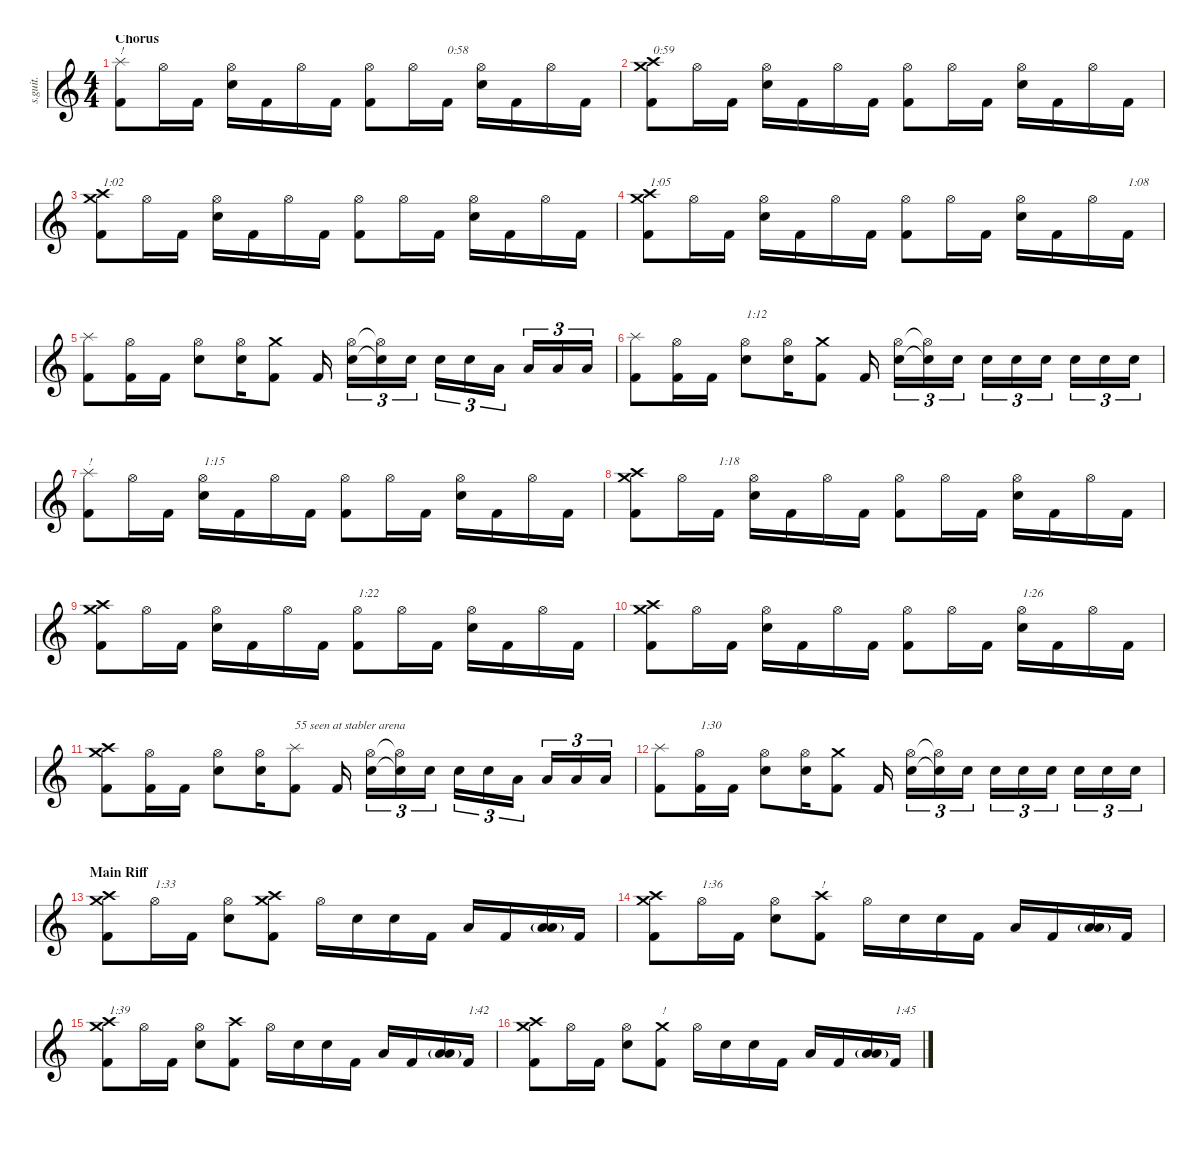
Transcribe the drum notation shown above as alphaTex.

\defaultSystemsLayout 4
\hideDynamics
\bracketExtendMode nobrackets
\track ("Dave Grohl | Drums" "s.guit.") {instrument percussion}
\staff {score}
\articulation defaults
\ts (4 4)
\section ("" "Chorus")
\tempo (79 hide)
\clef g2
\ks c
("Splash (hit)" "Kick (hit) 2").8{txt "!" lyrics (0 "") lyrics (1 "") lyrics (2 "") lyrics (3 "") lyrics (4 "") dy f} "Hi-Hat (open)".16{lyrics (0 "") lyrics (1 "") lyrics (2 "") lyrics (3 "") lyrics (4 "")} "Kick (hit) 2".16{lyrics (0 "") lyrics (1 "") lyrics (2 "") lyrics (3 "") lyrics (4 "") dy fff} ("Hi-Hat (open)" "Snare (hit) 2").16{lyrics (0 "") lyrics (1 "") lyrics (2 "") lyrics (3 "") lyrics (4 "") dy f} "Kick (hit) 2".16{lyrics (0 "") lyrics (1 "") lyrics (2 "") lyrics (3 "") lyrics (4 "") dy fff} "Hi-Hat (open)".16{lyrics (0 "") lyrics (1 "") lyrics (2 "") lyrics (3 "") lyrics (4 "") dy f} "Kick (hit) 2".16{lyrics (0 "") lyrics (1 "") lyrics (2 "") lyrics (3 "") lyrics (4 "") dy fff} ("Hi-Hat (open)" "Kick (hit) 2").8{lyrics (0 "") lyrics (1 "") lyrics (2 "") lyrics (3 "") lyrics (4 "") dy f} "Hi-Hat (open)".16{lyrics (0 "") lyrics (1 "") lyrics (2 "") lyrics (3 "") lyrics (4 "")} "Kick (hit) 2".16{txt "0:58" lyrics (0 "") lyrics (1 "") lyrics (2 "") lyrics (3 "") lyrics (4 "") dy fff} ("Hi-Hat (open)" "Snare (hit) 2").16{lyrics (0 "") lyrics (1 "") lyrics (2 "") lyrics (3 "") lyrics (4 "") dy f} "Kick (hit) 2".16{lyrics (0 "") lyrics (1 "") lyrics (2 "") lyrics (3 "") lyrics (4 "") dy fff} "Hi-Hat (open)".16{lyrics (0 "") lyrics (1 "") lyrics (2 "") lyrics (3 "") lyrics (4 "") dy f} "Kick (hit) 2".16{lyrics (0 "") lyrics (1 "") lyrics (2 "") lyrics (3 "") lyrics (4 "") dy fff} |
("Crash medium (hit)" "Crash high (hit)" "Kick (hit) 2").8{txt "0:59" lyrics (0 "") lyrics (1 "") lyrics (2 "") lyrics (3 "") lyrics (4 "") dy f} "Hi-Hat (open)".16{lyrics (0 "") lyrics (1 "") lyrics (2 "") lyrics (3 "") lyrics (4 "")} "Kick (hit) 2".16{lyrics (0 "") lyrics (1 "") lyrics (2 "") lyrics (3 "") lyrics (4 "") dy fff} ("Hi-Hat (open)" "Snare (hit) 2").16{lyrics (0 "") lyrics (1 "") lyrics (2 "") lyrics (3 "") lyrics (4 "") dy f} "Kick (hit) 2".16{lyrics (0 "") lyrics (1 "") lyrics (2 "") lyrics (3 "") lyrics (4 "") dy fff} "Hi-Hat (open)".16{lyrics (0 "") lyrics (1 "") lyrics (2 "") lyrics (3 "") lyrics (4 "") dy f} "Kick (hit) 2".16{lyrics (0 "") lyrics (1 "") lyrics (2 "") lyrics (3 "") lyrics (4 "") dy fff} ("Hi-Hat (open)" "Kick (hit) 2").8{lyrics (0 "") lyrics (1 "") lyrics (2 "") lyrics (3 "") lyrics (4 "") dy f} "Hi-Hat (open)".16{lyrics (0 "") lyrics (1 "") lyrics (2 "") lyrics (3 "") lyrics (4 "")} "Kick (hit) 2".16{lyrics (0 "") lyrics (1 "") lyrics (2 "") lyrics (3 "") lyrics (4 "") dy fff} ("Hi-Hat (open)" "Snare (hit) 2").16{lyrics (0 "") lyrics (1 "") lyrics (2 "") lyrics (3 "") lyrics (4 "") dy f} "Kick (hit) 2".16{lyrics (0 "") lyrics (1 "") lyrics (2 "") lyrics (3 "") lyrics (4 "") dy fff} "Hi-Hat (open)".16{lyrics (0 "") lyrics (1 "") lyrics (2 "") lyrics (3 "") lyrics (4 "") dy f} "Kick (hit) 2".16{lyrics (0 "") lyrics (1 "") lyrics (2 "") lyrics (3 "") lyrics (4 "") dy fff} |
("Crash medium (hit)" "Crash high (hit)" "Kick (hit) 2").8{txt "1:02" lyrics (0 "") lyrics (1 "") lyrics (2 "") lyrics (3 "") lyrics (4 "") dy f} "Hi-Hat (open)".16{lyrics (0 "") lyrics (1 "") lyrics (2 "") lyrics (3 "") lyrics (4 "")} "Kick (hit) 2".16{lyrics (0 "") lyrics (1 "") lyrics (2 "") lyrics (3 "") lyrics (4 "")} ("Hi-Hat (open)" "Snare (hit) 2").16{lyrics (0 "") lyrics (1 "") lyrics (2 "") lyrics (3 "") lyrics (4 "")} "Kick (hit) 2".16{lyrics (0 "") lyrics (1 "") lyrics (2 "") lyrics (3 "") lyrics (4 "")} "Hi-Hat (open)".16{lyrics (0 "") lyrics (1 "") lyrics (2 "") lyrics (3 "") lyrics (4 "")} "Kick (hit) 2".16{lyrics (0 "") lyrics (1 "") lyrics (2 "") lyrics (3 "") lyrics (4 "")} ("Hi-Hat (open)" "Kick (hit) 2").8{lyrics (0 "") lyrics (1 "") lyrics (2 "") lyrics (3 "") lyrics (4 "")} "Hi-Hat (open)".16{lyrics (0 "") lyrics (1 "") lyrics (2 "") lyrics (3 "") lyrics (4 "")} "Kick (hit) 2".16{lyrics (0 "") lyrics (1 "") lyrics (2 "") lyrics (3 "") lyrics (4 "")} ("Hi-Hat (open)" "Snare (hit) 2").16{lyrics (0 "") lyrics (1 "") lyrics (2 "") lyrics (3 "") lyrics (4 "")} "Kick (hit) 2".16{lyrics (0 "") lyrics (1 "") lyrics (2 "") lyrics (3 "") lyrics (4 "")} "Hi-Hat (open)".16{lyrics (0 "") lyrics (1 "") lyrics (2 "") lyrics (3 "") lyrics (4 "")} "Kick (hit) 2".16{lyrics (0 "") lyrics (1 "") lyrics (2 "") lyrics (3 "") lyrics (4 "")} |
("Crash medium (hit)" "Crash high (hit)" "Kick (hit) 2").8{txt "1:05" lyrics (0 "") lyrics (1 "") lyrics (2 "") lyrics (3 "") lyrics (4 "")} "Hi-Hat (open)".16{lyrics (0 "") lyrics (1 "") lyrics (2 "") lyrics (3 "") lyrics (4 "")} "Kick (hit) 2".16{lyrics (0 "") lyrics (1 "") lyrics (2 "") lyrics (3 "") lyrics (4 "")} ("Hi-Hat (open)" "Snare (hit) 2").16{lyrics (0 "") lyrics (1 "") lyrics (2 "") lyrics (3 "") lyrics (4 "")} "Kick (hit) 2".16{lyrics (0 "") lyrics (1 "") lyrics (2 "") lyrics (3 "") lyrics (4 "")} "Hi-Hat (open)".16{lyrics (0 "") lyrics (1 "") lyrics (2 "") lyrics (3 "") lyrics (4 "")} "Kick (hit) 2".16{lyrics (0 "") lyrics (1 "") lyrics (2 "") lyrics (3 "") lyrics (4 "")} ("Hi-Hat (open)" "Kick (hit) 2").8{lyrics (0 "") lyrics (1 "") lyrics (2 "") lyrics (3 "") lyrics (4 "")} "Hi-Hat (open)".16{lyrics (0 "") lyrics (1 "") lyrics (2 "") lyrics (3 "") lyrics (4 "")} "Kick (hit) 2".16{lyrics (0 "") lyrics (1 "") lyrics (2 "") lyrics (3 "") lyrics (4 "")} ("Hi-Hat (open)" "Snare (hit) 2").16{lyrics (0 "") lyrics (1 "") lyrics (2 "") lyrics (3 "") lyrics (4 "")} "Kick (hit) 2".16{lyrics (0 "") lyrics (1 "") lyrics (2 "") lyrics (3 "") lyrics (4 "")} "Hi-Hat (open)".16{lyrics (0 "") lyrics (1 "") lyrics (2 "") lyrics (3 "") lyrics (4 "")} "Kick (hit) 2".16{txt "1:08" lyrics (0 "") lyrics (1 "") lyrics (2 "") lyrics (3 "") lyrics (4 "")} |
("Splash (hit)" "Kick (hit) 2").8{lyrics (0 "") lyrics (1 "") lyrics (2 "") lyrics (3 "") lyrics (4 "")} ("Hi-Hat (open)" "Kick (hit) 2").16{lyrics (0 "") lyrics (1 "") lyrics (2 "") lyrics (3 "") lyrics (4 "")} "Kick (hit) 2".16{lyrics (0 "") lyrics (1 "") lyrics (2 "") lyrics (3 "") lyrics (4 "") dy fff} ("Hi-Hat (open)" "Snare (hit) 2").8{lyrics (0 "") lyrics (1 "") lyrics (2 "") lyrics (3 "") lyrics (4 "") dy f} ("Hi-Hat (open)" "Snare (hit) 2").16{lyrics (0 "") lyrics (1 "") lyrics (2 "") lyrics (3 "") lyrics (4 "")} ("Crash medium (hit)" "Kick (hit) 2").8{lyrics (0 "") lyrics (1 "") lyrics (2 "") lyrics (3 "") lyrics (4 "")} "Kick (hit) 2".16{lyrics (0 "") lyrics (1 "") lyrics (2 "") lyrics (3 "") lyrics (4 "") dy fff} ("Hi-Hat (open)" "Snare (hit) 2").16{tu (3 2) lyrics (0 "") lyrics (1 "") lyrics (2 "") lyrics (3 "") lyrics (4 "") dy f} ("Hi-Hat (open)"{t} "Snare (hit) 2"{t}).16{tu (3 2) lyrics (0 "") lyrics (1 "") lyrics (2 "") lyrics (3 "") lyrics (4 "")} "Snare (hit) 2".16{tu (3 2) lyrics (0 "") lyrics (1 "") lyrics (2 "") lyrics (3 "") lyrics (4 "")} "Snare (hit) 2".16{tu (3 2) lyrics (0 "") lyrics (1 "") lyrics (2 "") lyrics (3 "") lyrics (4 "")} "Snare (hit) 2".16{tu (3 2) lyrics (0 "") lyrics (1 "") lyrics (2 "") lyrics (3 "") lyrics (4 "")} "Low Tom (hit)".16{tu (3 2) lyrics (0 "") lyrics (1 "") lyrics (2 "") lyrics (3 "") lyrics (4 "")} "Low Tom (hit)".16{tu (3 2) lyrics (0 "") lyrics (1 "") lyrics (2 "") lyrics (3 "") lyrics (4 "")} "Low Floor Tom (hit)".16{tu (3 2) lyrics (0 "") lyrics (1 "") lyrics (2 "") lyrics (3 "") lyrics (4 "")} "Low Floor Tom (hit)".16{tu (3 2) lyrics (0 "") lyrics (1 "") lyrics (2 "") lyrics (3 "") lyrics (4 "")} |
("Splash (hit)" "Kick (hit) 2").8{lyrics (0 "") lyrics (1 "") lyrics (2 "") lyrics (3 "") lyrics (4 "")} ("Hi-Hat (open)" "Kick (hit) 2").16{lyrics (0 "") lyrics (1 "") lyrics (2 "") lyrics (3 "") lyrics (4 "")} "Kick (hit) 2".16{lyrics (0 "") lyrics (1 "") lyrics (2 "") lyrics (3 "") lyrics (4 "")} ("Hi-Hat (open)" "Snare (hit) 2").8{txt "1:12" lyrics (0 "") lyrics (1 "") lyrics (2 "") lyrics (3 "") lyrics (4 "")} ("Hi-Hat (open)" "Snare (hit) 2").16{lyrics (0 "") lyrics (1 "") lyrics (2 "") lyrics (3 "") lyrics (4 "")} ("Crash medium (hit)" "Kick (hit) 2").8{lyrics (0 "") lyrics (1 "") lyrics (2 "") lyrics (3 "") lyrics (4 "")} "Kick (hit) 2".16{lyrics (0 "") lyrics (1 "") lyrics (2 "") lyrics (3 "") lyrics (4 "")} ("Hi-Hat (open)" "Snare (hit) 2").16{tu (3 2) lyrics (0 "") lyrics (1 "") lyrics (2 "") lyrics (3 "") lyrics (4 "")} ("Hi-Hat (open)"{t} "Snare (hit) 2"{t}).16{tu (3 2) lyrics (0 "") lyrics (1 "") lyrics (2 "") lyrics (3 "") lyrics (4 "")} "Snare (hit) 2".16{tu (3 2) lyrics (0 "") lyrics (1 "") lyrics (2 "") lyrics (3 "") lyrics (4 "")} "Snare (hit) 2".16{tu (3 2) lyrics (0 "") lyrics (1 "") lyrics (2 "") lyrics (3 "") lyrics (4 "")} "Snare (hit) 2".16{tu (3 2) lyrics (0 "") lyrics (1 "") lyrics (2 "") lyrics (3 "") lyrics (4 "")} "Snare (hit) 2".16{tu (3 2) lyrics (0 "") lyrics (1 "") lyrics (2 "") lyrics (3 "") lyrics (4 "")} "Snare (hit) 2".16{tu (3 2) lyrics (0 "") lyrics (1 "") lyrics (2 "") lyrics (3 "") lyrics (4 "")} "Snare (hit) 2".16{tu (3 2) lyrics (0 "") lyrics (1 "") lyrics (2 "") lyrics (3 "") lyrics (4 "")} "Snare (hit) 2".16{tu (3 2) lyrics (0 "") lyrics (1 "") lyrics (2 "") lyrics (3 "") lyrics (4 "")} |
("Splash (hit)" "Kick (hit) 2").8{txt "!" lyrics (0 "") lyrics (1 "") lyrics (2 "") lyrics (3 "") lyrics (4 "")} "Hi-Hat (open)".16{lyrics (0 "") lyrics (1 "") lyrics (2 "") lyrics (3 "") lyrics (4 "")} "Kick (hit) 2".16{lyrics (0 "") lyrics (1 "") lyrics (2 "") lyrics (3 "") lyrics (4 "") dy fff} ("Hi-Hat (open)" "Snare (hit) 2").16{txt "1:15" lyrics (0 "") lyrics (1 "") lyrics (2 "") lyrics (3 "") lyrics (4 "") dy f} "Kick (hit) 2".16{lyrics (0 "") lyrics (1 "") lyrics (2 "") lyrics (3 "") lyrics (4 "") dy fff} "Hi-Hat (open)".16{lyrics (0 "") lyrics (1 "") lyrics (2 "") lyrics (3 "") lyrics (4 "") dy f} "Kick (hit) 2".16{lyrics (0 "") lyrics (1 "") lyrics (2 "") lyrics (3 "") lyrics (4 "") dy fff} ("Hi-Hat (open)" "Kick (hit) 2").8{lyrics (0 "") lyrics (1 "") lyrics (2 "") lyrics (3 "") lyrics (4 "") dy f} "Hi-Hat (open)".16{lyrics (0 "") lyrics (1 "") lyrics (2 "") lyrics (3 "") lyrics (4 "")} "Kick (hit) 2".16{lyrics (0 "") lyrics (1 "") lyrics (2 "") lyrics (3 "") lyrics (4 "") dy fff} ("Hi-Hat (open)" "Snare (hit) 2").16{lyrics (0 "") lyrics (1 "") lyrics (2 "") lyrics (3 "") lyrics (4 "") dy f} "Kick (hit) 2".16{lyrics (0 "") lyrics (1 "") lyrics (2 "") lyrics (3 "") lyrics (4 "") dy fff} "Hi-Hat (open)".16{lyrics (0 "") lyrics (1 "") lyrics (2 "") lyrics (3 "") lyrics (4 "") dy f} "Kick (hit) 2".16{lyrics (0 "") lyrics (1 "") lyrics (2 "") lyrics (3 "") lyrics (4 "") dy fff} |
("Crash medium (hit)" "Crash high (hit)" "Kick (hit) 2").8{lyrics (0 "") lyrics (1 "") lyrics (2 "") lyrics (3 "") lyrics (4 "") dy f} "Hi-Hat (open)".16{lyrics (0 "") lyrics (1 "") lyrics (2 "") lyrics (3 "") lyrics (4 "")} "Kick (hit) 2".16{txt "1:18" lyrics (0 "") lyrics (1 "") lyrics (2 "") lyrics (3 "") lyrics (4 "") dy fff} ("Hi-Hat (open)" "Snare (hit) 2").16{lyrics (0 "") lyrics (1 "") lyrics (2 "") lyrics (3 "") lyrics (4 "") dy f} "Kick (hit) 2".16{lyrics (0 "") lyrics (1 "") lyrics (2 "") lyrics (3 "") lyrics (4 "") dy fff} "Hi-Hat (open)".16{lyrics (0 "") lyrics (1 "") lyrics (2 "") lyrics (3 "") lyrics (4 "") dy f} "Kick (hit) 2".16{lyrics (0 "") lyrics (1 "") lyrics (2 "") lyrics (3 "") lyrics (4 "") dy fff} ("Hi-Hat (open)" "Kick (hit) 2").8{lyrics (0 "") lyrics (1 "") lyrics (2 "") lyrics (3 "") lyrics (4 "") dy f} "Hi-Hat (open)".16{lyrics (0 "") lyrics (1 "") lyrics (2 "") lyrics (3 "") lyrics (4 "")} "Kick (hit) 2".16{lyrics (0 "") lyrics (1 "") lyrics (2 "") lyrics (3 "") lyrics (4 "") dy fff} ("Hi-Hat (open)" "Snare (hit) 2").16{lyrics (0 "") lyrics (1 "") lyrics (2 "") lyrics (3 "") lyrics (4 "") dy f} "Kick (hit) 2".16{lyrics (0 "") lyrics (1 "") lyrics (2 "") lyrics (3 "") lyrics (4 "") dy fff} "Hi-Hat (open)".16{lyrics (0 "") lyrics (1 "") lyrics (2 "") lyrics (3 "") lyrics (4 "") dy f} "Kick (hit) 2".16{lyrics (0 "") lyrics (1 "") lyrics (2 "") lyrics (3 "") lyrics (4 "") dy fff} |
("Crash medium (hit)" "Crash high (hit)" "Kick (hit) 2").8{lyrics (0 "") lyrics (1 "") lyrics (2 "") lyrics (3 "") lyrics (4 "") dy f} "Hi-Hat (open)".16{lyrics (0 "") lyrics (1 "") lyrics (2 "") lyrics (3 "") lyrics (4 "")} "Kick (hit) 2".16{lyrics (0 "") lyrics (1 "") lyrics (2 "") lyrics (3 "") lyrics (4 "")} ("Hi-Hat (open)" "Snare (hit) 2").16{lyrics (0 "") lyrics (1 "") lyrics (2 "") lyrics (3 "") lyrics (4 "")} "Kick (hit) 2".16{lyrics (0 "") lyrics (1 "") lyrics (2 "") lyrics (3 "") lyrics (4 "")} "Hi-Hat (open)".16{lyrics (0 "") lyrics (1 "") lyrics (2 "") lyrics (3 "") lyrics (4 "")} "Kick (hit) 2".16{lyrics (0 "") lyrics (1 "") lyrics (2 "") lyrics (3 "") lyrics (4 "")} ("Hi-Hat (open)" "Kick (hit) 2").8{txt "1:22" lyrics (0 "") lyrics (1 "") lyrics (2 "") lyrics (3 "") lyrics (4 "")} "Hi-Hat (open)".16{lyrics (0 "") lyrics (1 "") lyrics (2 "") lyrics (3 "") lyrics (4 "")} "Kick (hit) 2".16{lyrics (0 "") lyrics (1 "") lyrics (2 "") lyrics (3 "") lyrics (4 "")} ("Hi-Hat (open)" "Snare (hit) 2").16{lyrics (0 "") lyrics (1 "") lyrics (2 "") lyrics (3 "") lyrics (4 "")} "Kick (hit) 2".16{lyrics (0 "") lyrics (1 "") lyrics (2 "") lyrics (3 "") lyrics (4 "")} "Hi-Hat (open)".16{lyrics (0 "") lyrics (1 "") lyrics (2 "") lyrics (3 "") lyrics (4 "")} "Kick (hit) 2".16{lyrics (0 "") lyrics (1 "") lyrics (2 "") lyrics (3 "") lyrics (4 "")} |
("Crash medium (hit)" "Crash high (hit)" "Kick (hit) 2").8{lyrics (0 "") lyrics (1 "") lyrics (2 "") lyrics (3 "") lyrics (4 "")} "Hi-Hat (open)".16{lyrics (0 "") lyrics (1 "") lyrics (2 "") lyrics (3 "") lyrics (4 "")} "Kick (hit) 2".16{lyrics (0 "") lyrics (1 "") lyrics (2 "") lyrics (3 "") lyrics (4 "")} ("Hi-Hat (open)" "Snare (hit) 2").16{lyrics (0 "") lyrics (1 "") lyrics (2 "") lyrics (3 "") lyrics (4 "")} "Kick (hit) 2".16{lyrics (0 "") lyrics (1 "") lyrics (2 "") lyrics (3 "") lyrics (4 "")} "Hi-Hat (open)".16{lyrics (0 "") lyrics (1 "") lyrics (2 "") lyrics (3 "") lyrics (4 "")} "Kick (hit) 2".16{lyrics (0 "") lyrics (1 "") lyrics (2 "") lyrics (3 "") lyrics (4 "")} ("Hi-Hat (open)" "Kick (hit) 2").8{lyrics (0 "") lyrics (1 "") lyrics (2 "") lyrics (3 "") lyrics (4 "")} "Hi-Hat (open)".16{lyrics (0 "") lyrics (1 "") lyrics (2 "") lyrics (3 "") lyrics (4 "")} "Kick (hit) 2".16{lyrics (0 "") lyrics (1 "") lyrics (2 "") lyrics (3 "") lyrics (4 "")} ("Hi-Hat (open)" "Snare (hit) 2").16{txt "1:26" lyrics (0 "") lyrics (1 "") lyrics (2 "") lyrics (3 "") lyrics (4 "")} "Kick (hit) 2".16{lyrics (0 "") lyrics (1 "") lyrics (2 "") lyrics (3 "") lyrics (4 "")} "Hi-Hat (open)".16{lyrics (0 "") lyrics (1 "") lyrics (2 "") lyrics (3 "") lyrics (4 "")} "Kick (hit) 2".16{lyrics (0 "") lyrics (1 "") lyrics (2 "") lyrics (3 "") lyrics (4 "")} |
("Crash medium (hit)" "Crash high (hit)" "Kick (hit) 2").8{lyrics (0 "") lyrics (1 "") lyrics (2 "") lyrics (3 "") lyrics (4 "")} ("Hi-Hat (open)" "Kick (hit) 2").16{lyrics (0 "") lyrics (1 "") lyrics (2 "") lyrics (3 "") lyrics (4 "")} "Kick (hit) 2".16{lyrics (0 "") lyrics (1 "") lyrics (2 "") lyrics (3 "") lyrics (4 "") dy fff} ("Hi-Hat (open)" "Snare (hit) 2").8{lyrics (0 "") lyrics (1 "") lyrics (2 "") lyrics (3 "") lyrics (4 "") dy f} ("Hi-Hat (open)" "Snare (hit) 2").16{lyrics (0 "") lyrics (1 "") lyrics (2 "") lyrics (3 "") lyrics (4 "")} ("Splash (hit)" "Kick (hit) 2").8{txt "55 seen at stabler arena" lyrics (0 "") lyrics (1 "") lyrics (2 "") lyrics (3 "") lyrics (4 "")} "Kick (hit) 2".16{lyrics (0 "") lyrics (1 "") lyrics (2 "") lyrics (3 "") lyrics (4 "") dy fff} ("Hi-Hat (open)" "Snare (hit) 2").16{tu (3 2) lyrics (0 "") lyrics (1 "") lyrics (2 "") lyrics (3 "") lyrics (4 "") dy f} ("Hi-Hat (open)"{t} "Snare (hit) 2"{t}).16{tu (3 2) lyrics (0 "") lyrics (1 "") lyrics (2 "") lyrics (3 "") lyrics (4 "")} "Snare (hit) 2".16{tu (3 2) lyrics (0 "") lyrics (1 "") lyrics (2 "") lyrics (3 "") lyrics (4 "")} "Snare (hit) 2".16{tu (3 2) lyrics (0 "") lyrics (1 "") lyrics (2 "") lyrics (3 "") lyrics (4 "")} "Snare (hit) 2".16{tu (3 2) lyrics (0 "") lyrics (1 "") lyrics (2 "") lyrics (3 "") lyrics (4 "")} "Low Tom (hit)".16{tu (3 2) lyrics (0 "") lyrics (1 "") lyrics (2 "") lyrics (3 "") lyrics (4 "")} "Low Tom (hit)".16{tu (3 2) lyrics (0 "") lyrics (1 "") lyrics (2 "") lyrics (3 "") lyrics (4 "")} "Low Floor Tom (hit)".16{tu (3 2) lyrics (0 "") lyrics (1 "") lyrics (2 "") lyrics (3 "") lyrics (4 "")} "Low Floor Tom (hit)".16{tu (3 2) lyrics (0 "") lyrics (1 "") lyrics (2 "") lyrics (3 "") lyrics (4 "")} |
("Splash (hit)" "Kick (hit) 2").8{lyrics (0 "") lyrics (1 "") lyrics (2 "") lyrics (3 "") lyrics (4 "")} ("Hi-Hat (open)" "Kick (hit) 2").16{txt "1:30" lyrics (0 "") lyrics (1 "") lyrics (2 "") lyrics (3 "") lyrics (4 "")} "Kick (hit) 2".16{lyrics (0 "") lyrics (1 "") lyrics (2 "") lyrics (3 "") lyrics (4 "")} ("Hi-Hat (open)" "Snare (hit) 2").8{lyrics (0 "") lyrics (1 "") lyrics (2 "") lyrics (3 "") lyrics (4 "")} ("Hi-Hat (open)" "Snare (hit) 2").16{lyrics (0 "") lyrics (1 "") lyrics (2 "") lyrics (3 "") lyrics (4 "")} ("Crash medium (hit)" "Kick (hit) 2").8{lyrics (0 "") lyrics (1 "") lyrics (2 "") lyrics (3 "") lyrics (4 "")} "Kick (hit) 2".16{lyrics (0 "") lyrics (1 "") lyrics (2 "") lyrics (3 "") lyrics (4 "")} ("Hi-Hat (open)" "Snare (hit) 2").16{tu (3 2) lyrics (0 "") lyrics (1 "") lyrics (2 "") lyrics (3 "") lyrics (4 "")} ("Hi-Hat (open)"{t} "Snare (hit) 2"{t}).16{tu (3 2) lyrics (0 "") lyrics (1 "") lyrics (2 "") lyrics (3 "") lyrics (4 "")} "Snare (hit) 2".16{tu (3 2) lyrics (0 "") lyrics (1 "") lyrics (2 "") lyrics (3 "") lyrics (4 "")} "Snare (hit) 2".16{tu (3 2) lyrics (0 "") lyrics (1 "") lyrics (2 "") lyrics (3 "") lyrics (4 "")} "Snare (hit) 2".16{tu (3 2) lyrics (0 "") lyrics (1 "") lyrics (2 "") lyrics (3 "") lyrics (4 "")} "Snare (hit) 2".16{tu (3 2) lyrics (0 "") lyrics (1 "") lyrics (2 "") lyrics (3 "") lyrics (4 "")} "Snare (hit) 2".16{tu (3 2) lyrics (0 "") lyrics (1 "") lyrics (2 "") lyrics (3 "") lyrics (4 "")} "Snare (hit) 2".16{tu (3 2) lyrics (0 "") lyrics (1 "") lyrics (2 "") lyrics (3 "") lyrics (4 "")} "Snare (hit) 2".16{tu (3 2) lyrics (0 "") lyrics (1 "") lyrics (2 "") lyrics (3 "") lyrics (4 "")} |
\section ("" "Main Riff")
("Crash medium (hit)" "Crash high (hit)" "Kick (hit) 2").8{lyrics (0 "") lyrics (1 "") lyrics (2 "") lyrics (3 "") lyrics (4 "")} "Hi-Hat (open)".16{txt "1:33" lyrics (0 "") lyrics (1 "") lyrics (2 "") lyrics (3 "") lyrics (4 "")} "Kick (hit) 2".16{lyrics (0 "") lyrics (1 "") lyrics (2 "") lyrics (3 "") lyrics (4 "") dy fff} ("Hi-Hat (open)" "Snare (hit) 2").8{lyrics (0 "") lyrics (1 "") lyrics (2 "") lyrics (3 "") lyrics (4 "") dy f} ("Crash medium (hit)" "Crash high (hit)" "Kick (hit) 2").8{lyrics (0 "") lyrics (1 "") lyrics (2 "") lyrics (3 "") lyrics (4 "")} "Hi-Hat (open)".16{lyrics (0 "") lyrics (1 "") lyrics (2 "") lyrics (3 "") lyrics (4 "")} "Snare (hit) 2".16{lyrics (0 "") lyrics (1 "") lyrics (2 "") lyrics (3 "") lyrics (4 "")} "Snare (hit) 2".16{lyrics (0 "") lyrics (1 "") lyrics (2 "") lyrics (3 "") lyrics (4 "")} "Kick (hit) 2".16{lyrics (0 "") lyrics (1 "") lyrics (2 "") lyrics (3 "") lyrics (4 "") dy fff} "Low Tom (hit)".16{lyrics (0 "") lyrics (1 "") lyrics (2 "") lyrics (3 "") lyrics (4 "") dy f} "Kick (hit) 2".16{lyrics (0 "") lyrics (1 "") lyrics (2 "") lyrics (3 "") lyrics (4 "") dy fff} ("Low Tom (hit)"{g} "Low Floor Tom (hit)").16{lyrics (0 "") lyrics (1 "") lyrics (2 "") lyrics (3 "") lyrics (4 "") dy f} "Kick (hit) 2".16{lyrics (0 "") lyrics (1 "") lyrics (2 "") lyrics (3 "") lyrics (4 "") dy fff} |
("Crash medium (hit)" "Crash high (hit)" "Kick (hit) 2").8{lyrics (0 "") lyrics (1 "") lyrics (2 "") lyrics (3 "") lyrics (4 "") dy f} "Hi-Hat (open)".16{txt "1:36" lyrics (0 "") lyrics (1 "") lyrics (2 "") lyrics (3 "") lyrics (4 "")} "Kick (hit) 2".16{lyrics (0 "") lyrics (1 "") lyrics (2 "") lyrics (3 "") lyrics (4 "") dy fff} ("Hi-Hat (open)" "Snare (hit) 2").8{lyrics (0 "") lyrics (1 "") lyrics (2 "") lyrics (3 "") lyrics (4 "") dy f} ("Crash high (hit)" "Kick (hit) 2").8{txt "!" lyrics (0 "") lyrics (1 "") lyrics (2 "") lyrics (3 "") lyrics (4 "")} "Hi-Hat (open)".16{lyrics (0 "") lyrics (1 "") lyrics (2 "") lyrics (3 "") lyrics (4 "")} "Snare (hit) 2".16{lyrics (0 "") lyrics (1 "") lyrics (2 "") lyrics (3 "") lyrics (4 "")} "Snare (hit) 2".16{lyrics (0 "") lyrics (1 "") lyrics (2 "") lyrics (3 "") lyrics (4 "")} "Kick (hit) 2".16{lyrics (0 "") lyrics (1 "") lyrics (2 "") lyrics (3 "") lyrics (4 "")} "Low Tom (hit)".16{lyrics (0 "") lyrics (1 "") lyrics (2 "") lyrics (3 "") lyrics (4 "")} "Kick (hit) 2".16{lyrics (0 "") lyrics (1 "") lyrics (2 "") lyrics (3 "") lyrics (4 "")} ("Low Tom (hit)"{g} "Low Floor Tom (hit)").16{lyrics (0 "") lyrics (1 "") lyrics (2 "") lyrics (3 "") lyrics (4 "")} "Kick (hit) 2".16{lyrics (0 "") lyrics (1 "") lyrics (2 "") lyrics (3 "") lyrics (4 "")} |
("Crash medium (hit)" "Crash high (hit)" "Kick (hit) 2").8{txt "1:39" lyrics (0 "") lyrics (1 "") lyrics (2 "") lyrics (3 "") lyrics (4 "")} "Hi-Hat (open)".16{lyrics (0 "") lyrics (1 "") lyrics (2 "") lyrics (3 "") lyrics (4 "")} "Kick (hit) 2".16{lyrics (0 "") lyrics (1 "") lyrics (2 "") lyrics (3 "") lyrics (4 "") dy fff} ("Hi-Hat (open)" "Snare (hit) 2").8{lyrics (0 "") lyrics (1 "") lyrics (2 "") lyrics (3 "") lyrics (4 "") dy f} ("Crash high (hit)" "Kick (hit) 2").8{lyrics (0 "") lyrics (1 "") lyrics (2 "") lyrics (3 "") lyrics (4 "")} "Hi-Hat (open)".16{lyrics (0 "") lyrics (1 "") lyrics (2 "") lyrics (3 "") lyrics (4 "")} "Snare (hit) 2".16{lyrics (0 "") lyrics (1 "") lyrics (2 "") lyrics (3 "") lyrics (4 "")} "Snare (hit) 2".16{lyrics (0 "") lyrics (1 "") lyrics (2 "") lyrics (3 "") lyrics (4 "")} "Kick (hit) 2".16{lyrics (0 "") lyrics (1 "") lyrics (2 "") lyrics (3 "") lyrics (4 "") dy fff} "Low Tom (hit)".16{lyrics (0 "") lyrics (1 "") lyrics (2 "") lyrics (3 "") lyrics (4 "") dy f} "Kick (hit) 2".16{lyrics (0 "") lyrics (1 "") lyrics (2 "") lyrics (3 "") lyrics (4 "") dy fff} ("Low Tom (hit)"{g} "Low Floor Tom (hit)").16{lyrics (0 "") lyrics (1 "") lyrics (2 "") lyrics (3 "") lyrics (4 "") dy f} "Kick (hit) 2".16{txt "1:42" lyrics (0 "") lyrics (1 "") lyrics (2 "") lyrics (3 "") lyrics (4 "") dy fff} |
("Crash medium (hit)" "Crash high (hit)" "Kick (hit) 2").8{lyrics (0 "") lyrics (1 "") lyrics (2 "") lyrics (3 "") lyrics (4 "") dy f} "Hi-Hat (open)".16{lyrics (0 "") lyrics (1 "") lyrics (2 "") lyrics (3 "") lyrics (4 "")} "Kick (hit) 2".16{lyrics (0 "") lyrics (1 "") lyrics (2 "") lyrics (3 "") lyrics (4 "") dy fff} ("Hi-Hat (open)" "Snare (hit) 2").8{lyrics (0 "") lyrics (1 "") lyrics (2 "") lyrics (3 "") lyrics (4 "") dy f} ("Crash medium (hit)" "Kick (hit) 2").8{txt "!" lyrics (0 "") lyrics (1 "") lyrics (2 "") lyrics (3 "") lyrics (4 "")} "Hi-Hat (open)".16{lyrics (0 "") lyrics (1 "") lyrics (2 "") lyrics (3 "") lyrics (4 "")} "Snare (hit) 2".16{lyrics (0 "") lyrics (1 "") lyrics (2 "") lyrics (3 "") lyrics (4 "")} "Snare (hit) 2".16{lyrics (0 "") lyrics (1 "") lyrics (2 "") lyrics (3 "") lyrics (4 "")} "Kick (hit) 2".16{lyrics (0 "") lyrics (1 "") lyrics (2 "") lyrics (3 "") lyrics (4 "")} "Low Tom (hit)".16{lyrics (0 "") lyrics (1 "") lyrics (2 "") lyrics (3 "") lyrics (4 "")} "Kick (hit) 2".16{lyrics (0 "") lyrics (1 "") lyrics (2 "") lyrics (3 "") lyrics (4 "")} ("Low Tom (hit)"{g} "Low Floor Tom (hit)").16{lyrics (0 "") lyrics (1 "") lyrics (2 "") lyrics (3 "") lyrics (4 "")} "Kick (hit) 2".16{txt "1:45" lyrics (0 "") lyrics (1 "") lyrics (2 "") lyrics (3 "") lyrics (4 "")}
